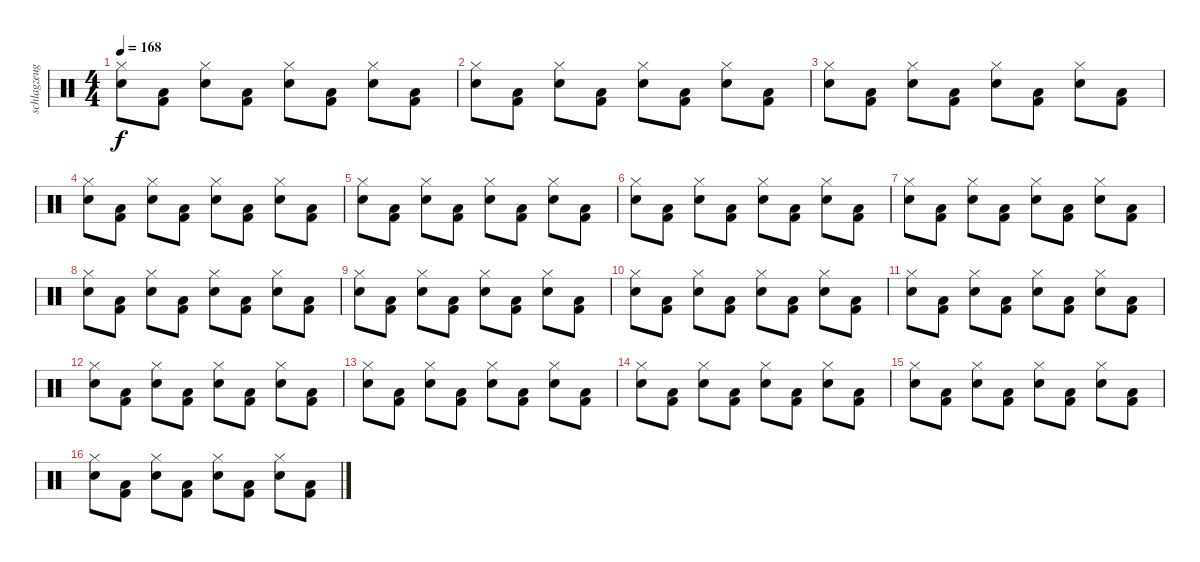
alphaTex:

\track ("schlagzeug" "schlagzeug") {instrument percussion}
\staff {score}
\articulation defaults
\ts (4 4)
\tempo 168
\clef neutral
\ks c
("Electric Snare (hit)" "Hi-Hat (closed)").8{dy f volume 13} ("Low Floor Tom (hit)" "Kick (hit) 2").8 ("Electric Snare (hit)" "Hi-Hat (closed)").8 ("Low Floor Tom (hit)" "Kick (hit) 2").8 ("Electric Snare (hit)" "Hi-Hat (closed)").8 ("Low Floor Tom (hit)" "Kick (hit) 2").8 ("Electric Snare (hit)" "Hi-Hat (closed)").8 ("Low Floor Tom (hit)" "Kick (hit) 2").8 |
("Electric Snare (hit)" "Hi-Hat (closed)").8 ("Low Floor Tom (hit)" "Kick (hit) 2").8 ("Electric Snare (hit)" "Hi-Hat (closed)").8 ("Low Floor Tom (hit)" "Kick (hit) 2").8 ("Electric Snare (hit)" "Hi-Hat (closed)").8 ("Low Floor Tom (hit)" "Kick (hit) 2").8 ("Electric Snare (hit)" "Hi-Hat (closed)").8 ("Low Floor Tom (hit)" "Kick (hit) 2").8 |
("Electric Snare (hit)" "Hi-Hat (closed)").8 ("Low Floor Tom (hit)" "Kick (hit) 2").8 ("Electric Snare (hit)" "Hi-Hat (closed)").8 ("Low Floor Tom (hit)" "Kick (hit) 2").8 ("Electric Snare (hit)" "Hi-Hat (closed)").8 ("Low Floor Tom (hit)" "Kick (hit) 2").8 ("Electric Snare (hit)" "Hi-Hat (closed)").8 ("Low Floor Tom (hit)" "Kick (hit) 2").8 |
("Electric Snare (hit)" "Hi-Hat (closed)").8{volume 11} ("Low Floor Tom (hit)" "Kick (hit) 2").8 ("Electric Snare (hit)" "Hi-Hat (closed)").8 ("Low Floor Tom (hit)" "Kick (hit) 2").8 ("Electric Snare (hit)" "Hi-Hat (closed)").8 ("Low Floor Tom (hit)" "Kick (hit) 2").8 ("Electric Snare (hit)" "Hi-Hat (closed)").8 ("Low Floor Tom (hit)" "Kick (hit) 2").8 |
("Electric Snare (hit)" "Hi-Hat (closed)").8 ("Low Floor Tom (hit)" "Kick (hit) 2").8 ("Electric Snare (hit)" "Hi-Hat (closed)").8 ("Low Floor Tom (hit)" "Kick (hit) 2").8 ("Electric Snare (hit)" "Hi-Hat (closed)").8 ("Low Floor Tom (hit)" "Kick (hit) 2").8 ("Electric Snare (hit)" "Hi-Hat (closed)").8 ("Low Floor Tom (hit)" "Kick (hit) 2").8 |
("Electric Snare (hit)" "Hi-Hat (closed)").8 ("Low Floor Tom (hit)" "Kick (hit) 2").8 ("Electric Snare (hit)" "Hi-Hat (closed)").8 ("Low Floor Tom (hit)" "Kick (hit) 2").8 ("Electric Snare (hit)" "Hi-Hat (closed)").8 ("Low Floor Tom (hit)" "Kick (hit) 2").8 ("Electric Snare (hit)" "Hi-Hat (closed)").8 ("Low Floor Tom (hit)" "Kick (hit) 2").8 |
("Electric Snare (hit)" "Hi-Hat (closed)").8 ("Low Floor Tom (hit)" "Kick (hit) 2").8 ("Electric Snare (hit)" "Hi-Hat (closed)").8 ("Low Floor Tom (hit)" "Kick (hit) 2").8 ("Electric Snare (hit)" "Hi-Hat (closed)").8 ("Low Floor Tom (hit)" "Kick (hit) 2").8 ("Electric Snare (hit)" "Hi-Hat (closed)").8 ("Low Floor Tom (hit)" "Kick (hit) 2").8 |
("Electric Snare (hit)" "Hi-Hat (closed)").8 ("Low Floor Tom (hit)" "Kick (hit) 2").8 ("Electric Snare (hit)" "Hi-Hat (closed)").8 ("Low Floor Tom (hit)" "Kick (hit) 2").8 ("Electric Snare (hit)" "Hi-Hat (closed)").8 ("Low Floor Tom (hit)" "Kick (hit) 2").8 ("Electric Snare (hit)" "Hi-Hat (closed)").8 ("Low Floor Tom (hit)" "Kick (hit) 2").8 |
("Electric Snare (hit)" "Hi-Hat (closed)").8{volume 10} ("Low Floor Tom (hit)" "Kick (hit) 2").8 ("Electric Snare (hit)" "Hi-Hat (closed)").8 ("Low Floor Tom (hit)" "Kick (hit) 2").8 ("Electric Snare (hit)" "Hi-Hat (closed)").8 ("Low Floor Tom (hit)" "Kick (hit) 2").8 ("Electric Snare (hit)" "Hi-Hat (closed)").8 ("Low Floor Tom (hit)" "Kick (hit) 2").8 |
("Electric Snare (hit)" "Hi-Hat (closed)").8 ("Low Floor Tom (hit)" "Kick (hit) 2").8 ("Electric Snare (hit)" "Hi-Hat (closed)").8 ("Low Floor Tom (hit)" "Kick (hit) 2").8 ("Electric Snare (hit)" "Hi-Hat (closed)").8 ("Low Floor Tom (hit)" "Kick (hit) 2").8 ("Electric Snare (hit)" "Hi-Hat (closed)").8 ("Low Floor Tom (hit)" "Kick (hit) 2").8 |
("Electric Snare (hit)" "Hi-Hat (closed)").8 ("Low Floor Tom (hit)" "Kick (hit) 2").8 ("Electric Snare (hit)" "Hi-Hat (closed)").8 ("Low Floor Tom (hit)" "Kick (hit) 2").8 ("Electric Snare (hit)" "Hi-Hat (closed)").8 ("Low Floor Tom (hit)" "Kick (hit) 2").8 ("Electric Snare (hit)" "Hi-Hat (closed)").8 ("Low Floor Tom (hit)" "Kick (hit) 2").8 |
("Electric Snare (hit)" "Hi-Hat (closed)").8{volume 9} ("Low Floor Tom (hit)" "Kick (hit) 2").8 ("Electric Snare (hit)" "Hi-Hat (closed)").8 ("Low Floor Tom (hit)" "Kick (hit) 2").8 ("Electric Snare (hit)" "Hi-Hat (closed)").8 ("Low Floor Tom (hit)" "Kick (hit) 2").8 ("Electric Snare (hit)" "Hi-Hat (closed)").8 ("Low Floor Tom (hit)" "Kick (hit) 2").8 |
("Electric Snare (hit)" "Hi-Hat (closed)").8{volume 8} ("Low Floor Tom (hit)" "Kick (hit) 2").8 ("Electric Snare (hit)" "Hi-Hat (closed)").8 ("Low Floor Tom (hit)" "Kick (hit) 2").8 ("Electric Snare (hit)" "Hi-Hat (closed)").8 ("Low Floor Tom (hit)" "Kick (hit) 2").8 ("Electric Snare (hit)" "Hi-Hat (closed)").8 ("Low Floor Tom (hit)" "Kick (hit) 2").8 |
("Electric Snare (hit)" "Hi-Hat (closed)").8{volume 7} ("Low Floor Tom (hit)" "Kick (hit) 2").8 ("Electric Snare (hit)" "Hi-Hat (closed)").8 ("Low Floor Tom (hit)" "Kick (hit) 2").8 ("Electric Snare (hit)" "Hi-Hat (closed)").8 ("Low Floor Tom (hit)" "Kick (hit) 2").8 ("Electric Snare (hit)" "Hi-Hat (closed)").8 ("Low Floor Tom (hit)" "Kick (hit) 2").8 |
("Electric Snare (hit)" "Hi-Hat (closed)").8{volume 6} ("Low Floor Tom (hit)" "Kick (hit) 2").8 ("Electric Snare (hit)" "Hi-Hat (closed)").8 ("Low Floor Tom (hit)" "Kick (hit) 2").8 ("Electric Snare (hit)" "Hi-Hat (closed)").8 ("Low Floor Tom (hit)" "Kick (hit) 2").8 ("Electric Snare (hit)" "Hi-Hat (closed)").8 ("Low Floor Tom (hit)" "Kick (hit) 2").8 |
("Electric Snare (hit)" "Hi-Hat (closed)").8{volume 4} ("Low Floor Tom (hit)" "Kick (hit) 2").8 ("Electric Snare (hit)" "Hi-Hat (closed)").8 ("Low Floor Tom (hit)" "Kick (hit) 2").8 ("Electric Snare (hit)" "Hi-Hat (closed)").8 ("Low Floor Tom (hit)" "Kick (hit) 2").8 ("Electric Snare (hit)" "Hi-Hat (closed)").8 ("Low Floor Tom (hit)" "Kick (hit) 2").8
